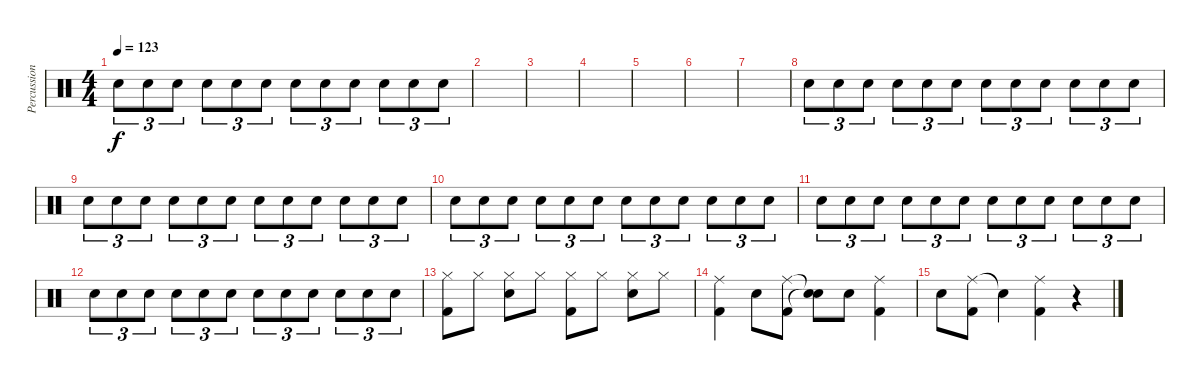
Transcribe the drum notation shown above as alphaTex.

\track ("Percussions" "Percussion") {instrument percussion}
\staff {score}
\articulation defaults
\ts (4 4)
\tempo 123
\clef neutral
\ks c "Snare (hit) 2".8{tu (3 2) dy f} "Snare (hit) 2".8{tu (3 2)} "Snare (hit) 2".8{tu (3 2)} "Snare (hit) 2".8{tu (3 2)} "Snare (hit) 2".8{tu (3 2)} "Snare (hit) 2".8{tu (3 2)} "Snare (hit) 2".8{tu (3 2)} "Snare (hit) 2".8{tu (3 2)} "Snare (hit) 2".8{tu (3 2)} "Snare (hit) 2".8{tu (3 2)} "Snare (hit) 2".8{tu (3 2)} "Snare (hit) 2".8{tu (3 2)}
|
|
|
|
|
|
|
"Snare (hit) 2".8{tu (3 2)} "Snare (hit) 2".8{tu (3 2)} "Snare (hit) 2".8{tu (3 2)} "Snare (hit) 2".8{tu (3 2)} "Snare (hit) 2".8{tu (3 2)} "Snare (hit) 2".8{tu (3 2)} "Snare (hit) 2".8{tu (3 2)} "Snare (hit) 2".8{tu (3 2)} "Snare (hit) 2".8{tu (3 2)} "Snare (hit) 2".8{tu (3 2)} "Snare (hit) 2".8{tu (3 2)} "Snare (hit) 2".8{tu (3 2)} |
"Snare (hit) 2".8{tu (3 2)} "Snare (hit) 2".8{tu (3 2)} "Snare (hit) 2".8{tu (3 2)} "Snare (hit) 2".8{tu (3 2)} "Snare (hit) 2".8{tu (3 2)} "Snare (hit) 2".8{tu (3 2)} "Snare (hit) 2".8{tu (3 2)} "Snare (hit) 2".8{tu (3 2)} "Snare (hit) 2".8{tu (3 2)} "Snare (hit) 2".8{tu (3 2)} "Snare (hit) 2".8{tu (3 2)} "Snare (hit) 2".8{tu (3 2)} |
"Snare (hit) 2".8{tu (3 2)} "Snare (hit) 2".8{tu (3 2)} "Snare (hit) 2".8{tu (3 2)} "Snare (hit) 2".8{tu (3 2)} "Snare (hit) 2".8{tu (3 2)} "Snare (hit) 2".8{tu (3 2)} "Snare (hit) 2".8{tu (3 2)} "Snare (hit) 2".8{tu (3 2)} "Snare (hit) 2".8{tu (3 2)} "Snare (hit) 2".8{tu (3 2)} "Snare (hit) 2".8{tu (3 2)} "Snare (hit) 2".8{tu (3 2)} |
"Snare (hit) 2".8{tu (3 2)} "Snare (hit) 2".8{tu (3 2)} "Snare (hit) 2".8{tu (3 2)} "Snare (hit) 2".8{tu (3 2)} "Snare (hit) 2".8{tu (3 2)} "Snare (hit) 2".8{tu (3 2)} "Snare (hit) 2".8{tu (3 2)} "Snare (hit) 2".8{tu (3 2)} "Snare (hit) 2".8{tu (3 2)} "Snare (hit) 2".8{tu (3 2)} "Snare (hit) 2".8{tu (3 2)} "Snare (hit) 2".8{tu (3 2)} |
"Snare (hit) 2".8{tu (3 2)} "Snare (hit) 2".8{tu (3 2)} "Snare (hit) 2".8{tu (3 2)} "Snare (hit) 2".8{tu (3 2)} "Snare (hit) 2".8{tu (3 2)} "Snare (hit) 2".8{tu (3 2)} "Snare (hit) 2".8{tu (3 2)} "Snare (hit) 2".8{tu (3 2)} "Snare (hit) 2".8{tu (3 2)} "Snare (hit) 2".8{tu (3 2)} "Snare (hit) 2".8{tu (3 2)} "Snare (hit) 2".8{tu (3 2)} |
("Hi-Hat (closed)" "Kick (hit) 2").8 "Hi-Hat (closed)".8 ("Hi-Hat (closed)" "Snare (hit) 2").8 "Hi-Hat (closed)".8 ("Hi-Hat (closed)" "Kick (hit) 2").8 "Hi-Hat (closed)".8 ("Hi-Hat (closed)" "Snare (hit) 2").8 "Hi-Hat (closed)".8 |
("Ride (middle)" "Kick (hit) 2").4 "Snare (hit) 2".8 ("Kick (hit) 2" "Ride (middle)").8 ("Snare (hit)"{t} "Snare (hit)"{t}).8 "Snare (hit) 2".8 ("Ride (middle)" "Kick (hit) 2").4 |
"Snare (hit) 2".8 ("Ride (middle)" "Kick (hit) 2").8 "Snare (hit)"{t}.4 ("Ride (middle)" "Kick (hit) 2").4 r.4
